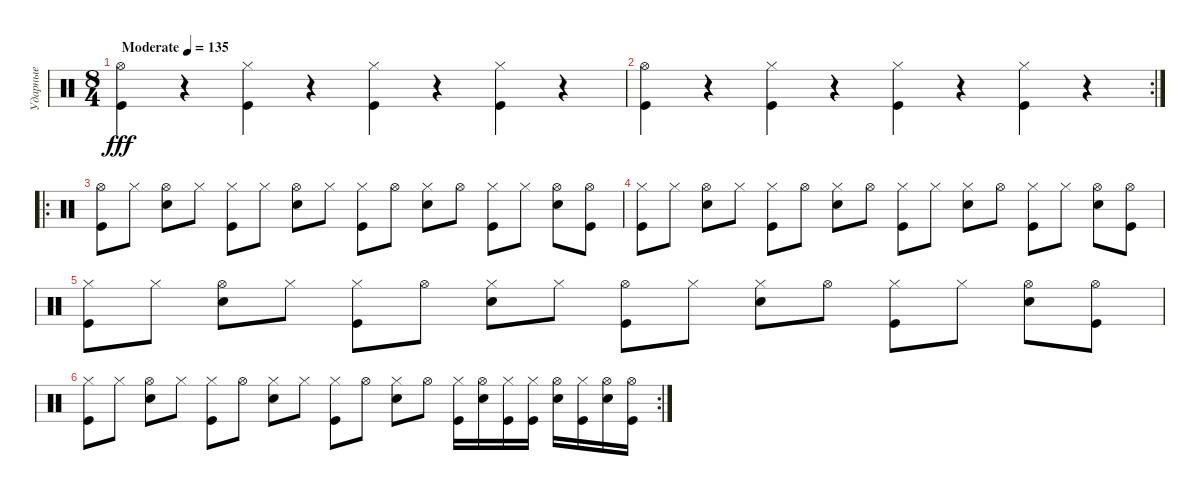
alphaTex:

\track ("Ударные" "Ударные") {instrument percussion}
\staff {score}
\articulation defaults
\ts (8 4)
\tempo (135 "Moderate")
\clef neutral
\ks c
("Hi-Hat (open)" "Kick (hit)").4{dy fff} r.4 ("Hi-Hat (closed)" "Kick (hit)").4 r.4 ("Hi-Hat (closed)" "Kick (hit)").4 r.4 ("Hi-Hat (closed)" "Kick (hit)").4 r.4 |
\rc 2
("Hi-Hat (open)" "Kick (hit)").4 r.4 ("Hi-Hat (closed)" "Kick (hit)").4 r.4 ("Hi-Hat (closed)" "Kick (hit)").4 r.4 ("Hi-Hat (closed)" "Kick (hit)").4 r.4 |
\ro
("Hi-Hat (open)" "Kick (hit)").8 "Hi-Hat (closed)".8 ("Hi-Hat (open)" "Electric Snare (hit)").8 "Hi-Hat (closed)".8 ("Hi-Hat (closed)" "Kick (hit)").8 "Hi-Hat (closed)".8 ("Hi-Hat (open)" "Electric Snare (hit)").8 "Hi-Hat (closed)".8 ("Hi-Hat (closed)" "Kick (hit)").8 "Hi-Hat (open)".8 ("Hi-Hat (closed)" "Electric Snare (hit)").8 "Hi-Hat (open)".8 ("Hi-Hat (closed)" "Kick (hit)").8 "Hi-Hat (closed)".8 ("Hi-Hat (open)" "Electric Snare (hit)").8 ("Hi-Hat (open)" "Kick (hit)").8 |
("Hi-Hat (closed)" "Kick (hit)").8 "Hi-Hat (closed)".8 ("Hi-Hat (open)" "Electric Snare (hit)").8 "Hi-Hat (closed)".8 ("Hi-Hat (closed)" "Kick (hit)").8 "Hi-Hat (open)".8 ("Hi-Hat (closed)" "Electric Snare (hit)").8 "Hi-Hat (open)".8 ("Hi-Hat (closed)" "Kick (hit)").8 "Hi-Hat (closed)".8 ("Hi-Hat (closed)" "Electric Snare (hit)").8 "Hi-Hat (open)".8 ("Hi-Hat (closed)" "Kick (hit)").8 "Hi-Hat (closed)".8 ("Hi-Hat (open)" "Electric Snare (hit)").8 ("Hi-Hat (open)" "Kick (hit)").8 |
("Hi-Hat (closed)" "Kick (hit)").8 "Hi-Hat (closed)".8 ("Hi-Hat (open)" "Electric Snare (hit)").8 "Hi-Hat (closed)".8 ("Hi-Hat (closed)" "Kick (hit)").8 "Hi-Hat (open)".8 ("Hi-Hat (closed)" "Electric Snare (hit)").8 "Hi-Hat (closed)".8 ("Hi-Hat (open)" "Kick (hit)").8 "Hi-Hat (closed)".8 ("Hi-Hat (closed)" "Electric Snare (hit)").8 "Hi-Hat (open)".8 ("Hi-Hat (closed)" "Kick (hit)").8 "Hi-Hat (closed)".8 ("Hi-Hat (open)" "Electric Snare (hit)").8 ("Hi-Hat (open)" "Kick (hit)").8 |
\rc 2
("Hi-Hat (closed)" "Kick (hit)").8 "Hi-Hat (closed)".8 ("Hi-Hat (open)" "Electric Snare (hit)").8 "Hi-Hat (closed)".8 ("Hi-Hat (closed)" "Kick (hit)").8 "Hi-Hat (open)".8 ("Hi-Hat (closed)" "Electric Snare (hit)").8 "Hi-Hat (closed)".8 ("Hi-Hat (closed)" "Kick (hit)").8 "Hi-Hat (open)".8 ("Hi-Hat (closed)" "Electric Snare (hit)").8 "Hi-Hat (open)".8 ("Hi-Hat (closed)" "Kick (hit)").16 ("Hi-Hat (open)" "Electric Snare (hit)").16 ("Hi-Hat (closed)" "Kick (hit)").16 ("Hi-Hat (closed)" "Kick (hit)").16 ("Hi-Hat (open)" "Electric Snare (hit)").16 ("Hi-Hat (closed)" "Kick (hit)").16 ("Hi-Hat (open)" "Electric Snare (hit)").16 ("Hi-Hat (open)" "Kick (hit)").16
